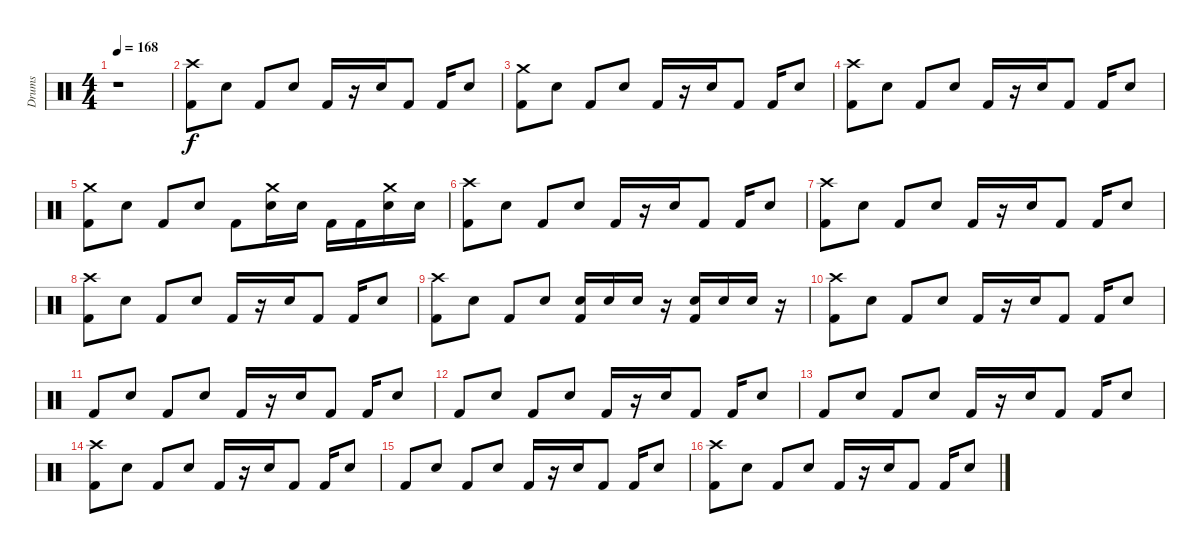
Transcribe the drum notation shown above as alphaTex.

\track ("Drums" "Drums") {instrument percussion}
\staff {score}
\articulation defaults
\ts (4 4)
\tempo 168
\clef neutral
\ks c
r.1{dy f} |
("Crash high (hit)" "Kick (hit) 2").8 "Electric Snare (hit)".8 "Kick (hit) 2".8 "Electric Snare (hit)".8 "Kick (hit) 2".16 r.16 "Electric Snare (hit)".16 "Kick (hit) 2".8 "Kick (hit) 2".16 "Electric Snare (hit)".8 |
("Crash medium (hit)" "Kick (hit) 2").8 "Electric Snare (hit)".8 "Kick (hit) 2".8 "Electric Snare (hit)".8 "Kick (hit) 2".16 r.16 "Electric Snare (hit)".16 "Kick (hit) 2".8 "Kick (hit) 2".16 "Electric Snare (hit)".8 |
("Crash high (hit)" "Kick (hit) 2").8 "Electric Snare (hit)".8 "Kick (hit) 2".8 "Electric Snare (hit)".8 "Kick (hit) 2".16 r.16 "Electric Snare (hit)".16 "Kick (hit) 2".8 "Kick (hit) 2".16 "Electric Snare (hit)".8 |
("Crash medium (hit)" "Kick (hit) 2").8 "Electric Snare (hit)".8 "Kick (hit) 2".8 "Electric Snare (hit)".8 "Kick (hit) 2".8 ("Crash medium (hit)" "Electric Snare (hit)").16 "Electric Snare (hit)".16 "Kick (hit) 2".16 "Kick (hit) 2".16 ("Crash medium (hit)" "Electric Snare (hit)").16 "Electric Snare (hit)".16 |
("Crash high (hit)" "Kick (hit) 2").8 "Electric Snare (hit)".8 "Kick (hit) 2".8 "Electric Snare (hit)".8 "Kick (hit) 2".16 r.16 "Electric Snare (hit)".16 "Kick (hit) 2".8 "Kick (hit) 2".16 "Electric Snare (hit)".8 |
("Crash high (hit)" "Kick (hit) 2").8 "Electric Snare (hit)".8 "Kick (hit) 2".8 "Electric Snare (hit)".8 "Kick (hit) 2".16 r.16 "Electric Snare (hit)".16 "Kick (hit) 2".8 "Kick (hit) 2".16 "Electric Snare (hit)".8 |
("Crash high (hit)" "Kick (hit) 2").8 "Electric Snare (hit)".8 "Kick (hit) 2".8 "Electric Snare (hit)".8 "Kick (hit) 2".16 r.16 "Electric Snare (hit)".16 "Kick (hit) 2".8 "Kick (hit) 2".16 "Electric Snare (hit)".8 |
("Crash high (hit)" "Kick (hit) 2").8 "Electric Snare (hit)".8 "Kick (hit) 2".8 "Electric Snare (hit)".8 ("Electric Snare (hit)" "Kick (hit) 2").16 "Electric Snare (hit)".16 "Electric Snare (hit)".16 r.16 ("Electric Snare (hit)" "Kick (hit) 2").16 "Electric Snare (hit)".16 "Electric Snare (hit)".16 r.16 |
("Crash high (hit)" "Kick (hit) 2").8 "Electric Snare (hit)".8 "Kick (hit) 2".8 "Electric Snare (hit)".8 "Kick (hit) 2".16 r.16 "Electric Snare (hit)".16 "Kick (hit) 2".8 "Kick (hit) 2".16 "Electric Snare (hit)".8 |
"Kick (hit) 2".8 "Electric Snare (hit)".8 "Kick (hit) 2".8 "Electric Snare (hit)".8 "Kick (hit) 2".16 r.16 "Electric Snare (hit)".16 "Kick (hit) 2".8 "Kick (hit) 2".16 "Electric Snare (hit)".8 |
"Kick (hit) 2".8 "Electric Snare (hit)".8 "Kick (hit) 2".8 "Electric Snare (hit)".8 "Kick (hit) 2".16 r.16 "Electric Snare (hit)".16 "Kick (hit) 2".8 "Kick (hit) 2".16 "Electric Snare (hit)".8 |
"Kick (hit) 2".8 "Electric Snare (hit)".8 "Kick (hit) 2".8 "Electric Snare (hit)".8 "Kick (hit) 2".16 r.16 "Electric Snare (hit)".16 "Kick (hit) 2".8 "Kick (hit) 2".16 "Electric Snare (hit)".8 |
("Crash high (hit)" "Kick (hit) 2").8 "Electric Snare (hit)".8 "Kick (hit) 2".8 "Electric Snare (hit)".8 "Kick (hit) 2".16 r.16 "Electric Snare (hit)".16 "Kick (hit) 2".8 "Kick (hit) 2".16 "Electric Snare (hit)".8 |
"Kick (hit) 2".8 "Electric Snare (hit)".8 "Kick (hit) 2".8 "Electric Snare (hit)".8 "Kick (hit) 2".16 r.16 "Electric Snare (hit)".16 "Kick (hit) 2".8 "Kick (hit) 2".16 "Electric Snare (hit)".8 |
("Crash high (hit)" "Kick (hit) 2").8 "Electric Snare (hit)".8 "Kick (hit) 2".8 "Electric Snare (hit)".8 "Kick (hit) 2".16 r.16 "Electric Snare (hit)".16 "Kick (hit) 2".8 "Kick (hit) 2".16 "Electric Snare (hit)".8
